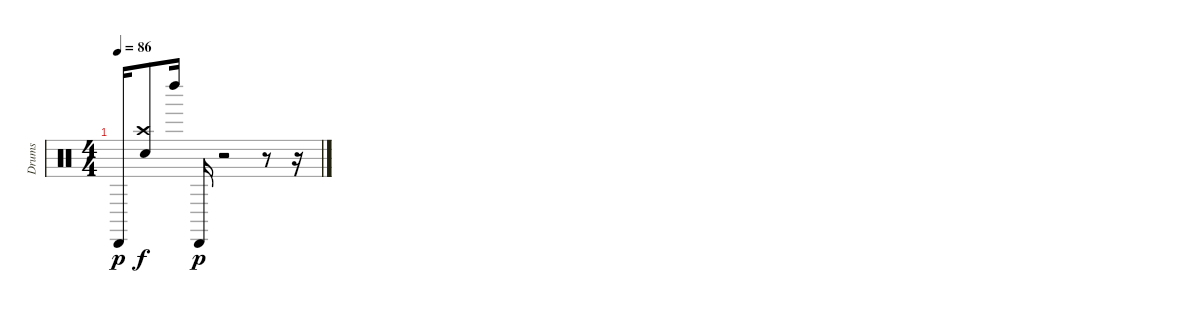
\track ("Drums" "Drums") {instrument percussion}
\staff {score}
\articulation defaults
\ts (4 4)
\tempo 86
\clef neutral
\ks c "Cabasa (hit)".16{dy p}
("Crash high (hit)" "Snare (hit) 2").8{dy f} "Left Maraca (hit)".16 "Cabasa (hit)".16{dy p} r.2 r.8 r.16
